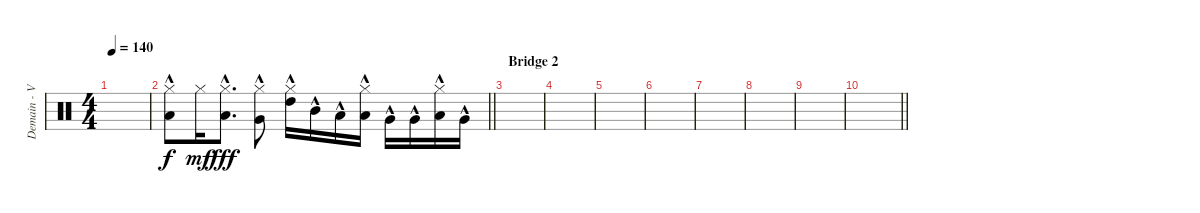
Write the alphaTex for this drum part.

\track ("Demain - Various Perc." "Demain - V") {instrument percussion}
\staff {score}
\articulation defaults
\ts (4 4)
\tempo 140
\clef neutral
\ks c
|
\barLineRight lightlight
("Hi-Hat (closed)" "Low Tom (hit)"{hac}).8{volume 16} "Hi-Hat (closed)".16{dy mf} ("Hi-Hat (closed)" "Low Tom (hit)"{hac}).8{d dy fff} ("Hi-Hat (closed)" "Very Low Tom (hit)"{hac}).8 ("Hi-Hat (closed)" "High Tom (hit)"{hac}).16 "Mid Tom (hit)"{hac}.16 "Low Tom (hit)"{hac}.16 ("Hi-Hat (closed)" "Low Tom (hit)"{hac}).16 "Very Low Tom (hit)"{hac}.16 "Very Low Tom (hit)"{hac}.16 ("Hi-Hat (closed)" "Low Floor Tom (hit)"{hac}).16 "Very Low Tom (hit)"{hac}.16 |
\section ("" "Bridge 2")
|
|
|
|
|
|
|
\barLineRight lightlight
